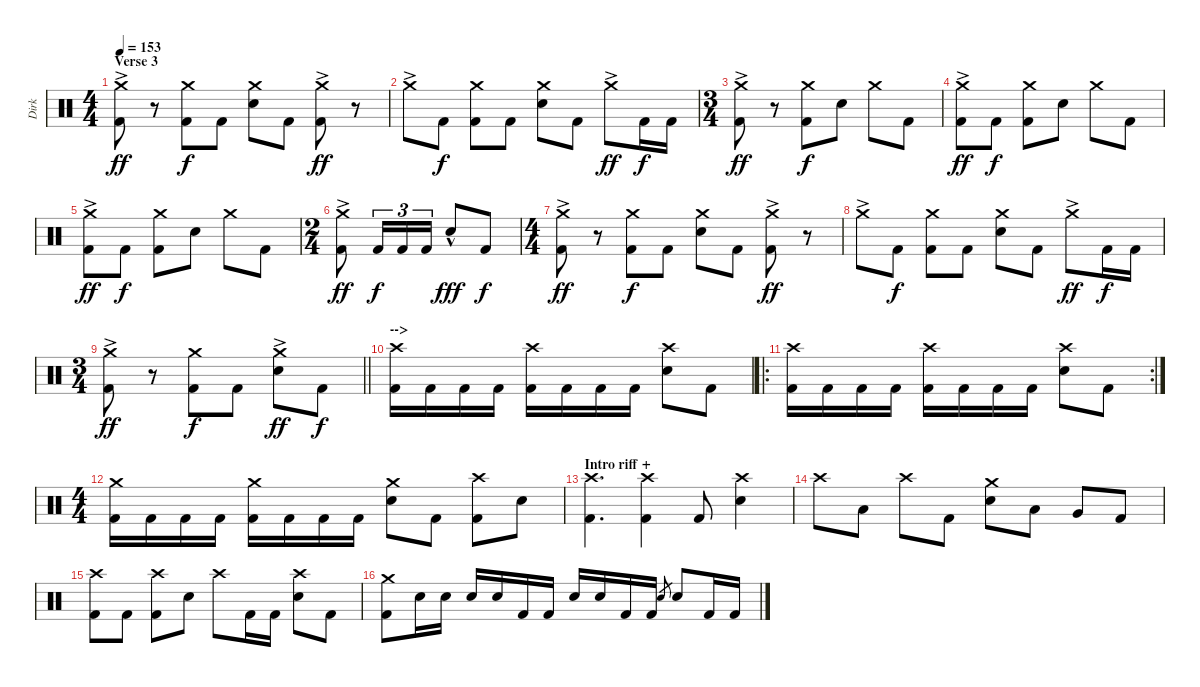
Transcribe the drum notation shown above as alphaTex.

\track ("Dirk" "Dirk") {instrument percussion}
\staff {score}
\articulation defaults
\ts (4 4)
\section ("" "Verse 3")
\tempo 153
\clef neutral
\ks c
("Crash medium (hit)"{ac} "Kick (hit) 2").8{dy ff} r.8 ("Crash medium (hit)" "Kick (hit) 2").8{dy f} "Kick (hit) 2".8 ("Crash medium (hit)" "Electric Snare (hit)").8 "Kick (hit) 2".8 ("Crash medium (hit)"{ac} "Kick (hit) 2").8{dy ff} r.8 |
"Crash medium (hit)"{ac}.8 "Kick (hit) 2".8{dy f} ("Crash medium (hit)" "Kick (hit) 2").8 "Kick (hit) 2".8 ("Crash medium (hit)" "Electric Snare (hit)").8 "Kick (hit) 2".8 "Crash medium (hit)"{ac}.8{dy ff} "Kick (hit) 2".16{dy f} "Kick (hit) 2".16 |
\ts (3 4)
("Crash medium (hit)"{ac} "Kick (hit) 2").8{dy ff} r.8 ("Crash medium (hit)" "Kick (hit) 2").8{dy f} "Electric Snare (hit)".8 "Crash medium (hit)".8 "Kick (hit) 2".8 |
("Crash medium (hit)"{ac} "Kick (hit) 2").8{dy ff} "Kick (hit) 2".8{dy f} ("Crash medium (hit)" "Kick (hit) 2").8 "Electric Snare (hit)".8 "Crash medium (hit)".8 "Kick (hit) 2".8 |
("Crash medium (hit)"{ac} "Kick (hit) 2").8{dy ff} "Kick (hit) 2".8{dy f} ("Crash medium (hit)" "Kick (hit) 2").8 "Electric Snare (hit)".8 "Crash medium (hit)".8 "Kick (hit) 2".8 |
\ts (2 4)
("Crash medium (hit)"{ac} "Kick (hit) 2").8{dy ff} "Kick (hit) 2".16{tu (3 2) dy f} "Kick (hit) 2".16{tu (3 2)} "Kick (hit) 2".16{tu (3 2)} "Electric Snare (hit)"{hac}.8{dy fff} "Kick (hit) 2".8{dy f} |
\ts (4 4)
("Crash medium (hit)"{ac} "Kick (hit) 2").8{dy ff} r.8 ("Crash medium (hit)" "Kick (hit) 2").8{dy f} "Kick (hit) 2".8 ("Crash medium (hit)" "Electric Snare (hit)").8 "Kick (hit) 2".8 ("Crash medium (hit)"{ac} "Kick (hit) 2").8{dy ff} r.8 |
"Crash medium (hit)"{ac}.8 "Kick (hit) 2".8{dy f} ("Crash medium (hit)" "Kick (hit) 2").8 "Kick (hit) 2".8 ("Crash medium (hit)" "Electric Snare (hit)").8 "Kick (hit) 2".8 "Crash medium (hit)"{ac}.8{dy ff} "Kick (hit) 2".16{dy f} "Kick (hit) 2".16 |
\ts (3 4)
\barLineRight lightlight
("Crash medium (hit)"{ac} "Kick (hit) 2").8{dy ff} r.8 ("Crash medium (hit)" "Kick (hit) 2").8{dy f} "Kick (hit) 2".8 ("Crash medium (hit)" "Electric Snare (hit)"{ac}).8{dy ff} "Kick (hit) 2".8{dy f} |
\section ("" "-->")
("Crash high (hit)" "Kick (hit) 2").16 "Kick (hit) 2".16 "Kick (hit) 2".16 "Kick (hit) 2".16 ("Crash high (hit)" "Kick (hit) 2").16 "Kick (hit) 2".16 "Kick (hit) 2".16 "Kick (hit) 2".16 ("Crash high (hit)" "Electric Snare (hit)").8 "Kick (hit) 2".8 |
\ro
\rc 2
("Crash high (hit)" "Kick (hit) 2").16 "Kick (hit) 2".16 "Kick (hit) 2".16 "Kick (hit) 2".16 ("Crash high (hit)" "Kick (hit) 2").16 "Kick (hit) 2".16 "Kick (hit) 2".16 "Kick (hit) 2".16 ("Crash high (hit)" "Electric Snare (hit)").8 "Kick (hit) 2".8 |
\ts (4 4)
("Crash medium (hit)" "Kick (hit) 2").16 "Kick (hit) 2".16 "Kick (hit) 2".16 "Kick (hit) 2".16 ("Crash medium (hit)" "Kick (hit) 2").16 "Kick (hit) 2".16 "Kick (hit) 2".16 "Kick (hit) 2".16 ("Crash medium (hit)" "Electric Snare (hit)").8 "Kick (hit) 2".8 ("Crash high (hit)" "Kick (hit) 2").8 "Electric Snare (hit)".8 |
\section ("" "Intro riff +")
("Crash high (hit)" "Kick (hit) 2").4{d} ("Crash high (hit)" "Kick (hit) 2").4 "Kick (hit) 2".8 ("Crash high (hit)" "Electric Snare (hit)").4 |
"Crash high (hit)".8 "Low Tom (hit)".8 "Crash high (hit)".8 "Kick (hit) 2".8 ("Crash medium (hit)" "Electric Snare (hit)").8 "Low Tom (hit)".8 "Very Low Tom (hit)".8 "Kick (hit) 2".8 |
("Crash high (hit)" "Kick (hit) 2").8 "Kick (hit) 2".8 ("Crash high (hit)" "Kick (hit) 2").8 "Electric Snare (hit)".8 "Crash high (hit)".8 "Kick (hit) 2".16 "Kick (hit) 2".16 ("Crash high (hit)" "Electric Snare (hit)").8 "Kick (hit) 2".8 |
("Crash medium (hit)" "Kick (hit) 2").8 "Electric Snare (hit)".16 "Electric Snare (hit)".16 "Electric Snare (hit)".16 "Electric Snare (hit)".16 "Kick (hit) 2".16 "Kick (hit) 2".16 "Electric Snare (hit)".16 "Electric Snare (hit)".16 "Kick (hit) 2".16 "Kick (hit) 2".16 "Electric Snare (hit)".8{gr} "Electric Snare (hit)".8 "Kick (hit) 2".16 "Kick (hit) 2".16
